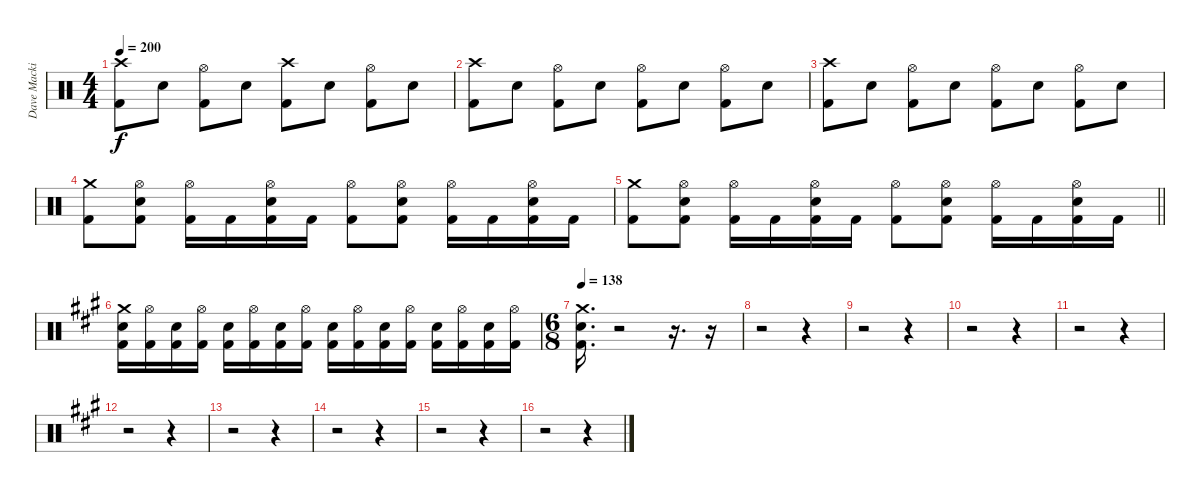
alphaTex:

\track ("Dave Mackintosh | Drums" "Dave Macki") {instrument percussion}
\staff {score}
\articulation defaults
\ts (4 4)
\tempo 200
\clef neutral
\ks c
("Crash high (hit)" "Kick (hit) 2").8{dy f} "Snare (hit) 2".8 ("Hi-Hat (open)" "Kick (hit) 2").8 "Snare (hit) 2".8 ("Crash high (hit)" "Kick (hit) 2").8 "Snare (hit) 2".8 ("Hi-Hat (open)" "Kick (hit) 2").8 "Snare (hit) 2".8 |
("Crash high (hit)" "Kick (hit) 2").8 "Snare (hit) 2".8 ("Hi-Hat (open)" "Kick (hit) 2").8 "Snare (hit) 2".8 ("Hi-Hat (open)" "Kick (hit) 2").8 "Snare (hit) 2".8 ("Hi-Hat (open)" "Kick (hit) 2").8 "Snare (hit) 2".8 |
("Crash high (hit)" "Kick (hit) 2").8 "Snare (hit) 2".8 ("Hi-Hat (open)" "Kick (hit) 2").8 "Snare (hit) 2".8 ("Hi-Hat (open)" "Kick (hit) 2").8 "Snare (hit) 2".8 ("Hi-Hat (open)" "Kick (hit) 2").8 "Snare (hit) 2".8 |
("Crash medium (hit)" "Kick (hit) 2").8 ("Hi-Hat (open)" "Snare (hit) 2" "Kick (hit) 2").8 ("Hi-Hat (open)" "Kick (hit) 2").16 "Kick (hit) 2".16 ("Hi-Hat (open)" "Snare (hit) 2" "Kick (hit) 2").16 "Kick (hit) 2".16 ("Hi-Hat (open)" "Kick (hit) 2").8 ("Hi-Hat (open)" "Snare (hit) 2" "Kick (hit) 2").8 ("Hi-Hat (open)" "Kick (hit) 2").16 "Kick (hit) 2".16 ("Hi-Hat (open)" "Snare (hit) 2" "Kick (hit) 2").16 "Kick (hit) 2".16 |
\barLineRight lightlight
("Crash medium (hit)" "Kick (hit) 2").8 ("Hi-Hat (open)" "Snare (hit) 2" "Kick (hit) 2").8 ("Hi-Hat (open)" "Kick (hit) 2").16 "Kick (hit) 2".16 ("Hi-Hat (open)" "Snare (hit) 2" "Kick (hit) 2").16 "Kick (hit) 2".16 ("Hi-Hat (open)" "Kick (hit) 2").8 ("Hi-Hat (open)" "Snare (hit) 2" "Kick (hit) 2").8 ("Hi-Hat (open)" "Kick (hit) 2").16 "Kick (hit) 2".16 ("Hi-Hat (open)" "Snare (hit) 2" "Kick (hit) 2").16 "Kick (hit) 2".16 |
\ks a
("Crash medium (hit)" "Snare (hit) 2" "Kick (hit) 2").16 ("Hi-Hat (open)" "Kick (hit) 2").16 ("Snare (hit) 2" "Kick (hit) 2").16 ("Hi-Hat (open)" "Kick (hit) 2").16 ("Snare (hit) 2" "Kick (hit) 2").16 ("Hi-Hat (open)" "Kick (hit) 2").16 ("Snare (hit) 2" "Kick (hit) 2").16 ("Hi-Hat (open)" "Kick (hit) 2").16 ("Snare (hit) 2" "Kick (hit) 2").16 ("Hi-Hat (open)" "Kick (hit) 2").16 ("Snare (hit) 2" "Kick (hit) 2").16 ("Hi-Hat (open)" "Kick (hit) 2").16 ("Snare (hit) 2" "Kick (hit) 2").16 ("Hi-Hat (open)" "Kick (hit) 2").16 ("Snare (hit) 2" "Kick (hit) 2").16 ("Hi-Hat (open)" "Kick (hit) 2").16 |
\ts (6 8)
\tempo 138
("Crash medium (hit)" "Snare (hit) 2" "Kick (hit) 2").16{d} r.2 r.16{d} r.16 |
r.2 r.4 |
r.2 r.4 |
r.2 r.4 |
r.2 r.4 |
r.2 r.4 |
r.2 r.4 |
r.2 r.4 |
r.2 r.4 |
r.2 r.4
